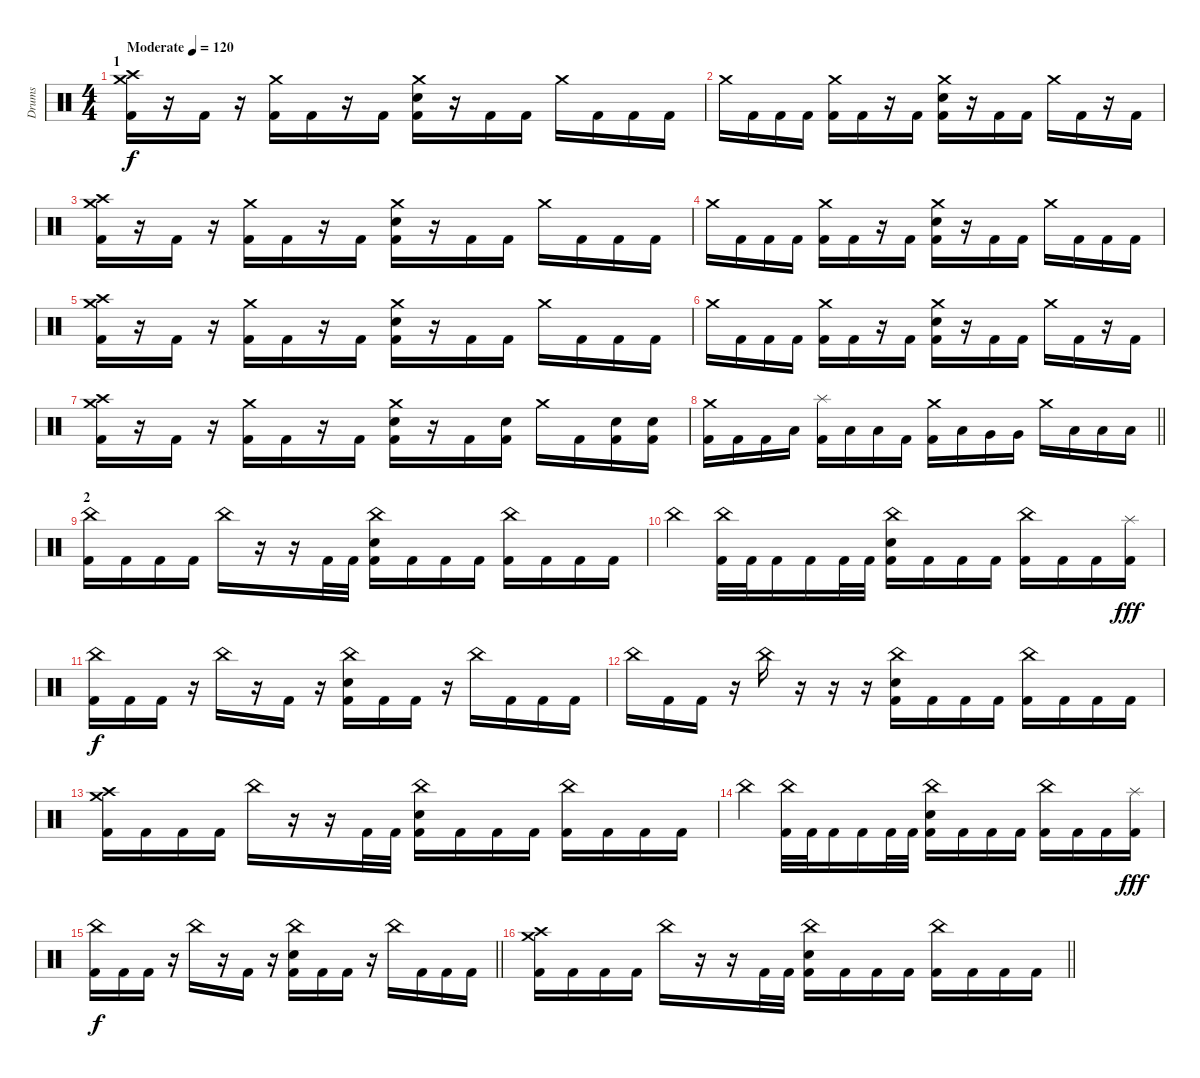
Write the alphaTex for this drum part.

\track ("Drums" "Drums") {instrument percussion}
\staff {score}
\articulation defaults
\ts (4 4)
\section ("" "1")
\tempo (120 "Moderate")
\clef neutral
\ks c
("Crash medium (hit)" "Crash high (hit)" "Kick (hit) 2").16{dy f} r.16 "Kick (hit) 2".16 r.16 ("Crash medium (hit)" "Kick (hit) 2").16 "Kick (hit) 2".16 r.16 "Kick (hit) 2".16 ("Crash medium (hit)" "Electric Snare (hit)" "Kick (hit) 2").16 r.16 "Kick (hit) 2".16 "Kick (hit) 2".16 "Crash medium (hit)".16 "Kick (hit) 2".16 "Kick (hit) 2".16 "Kick (hit) 2".16 |
"Crash medium (hit)".16 "Kick (hit) 2".16 "Kick (hit) 2".16 "Kick (hit) 2".16 ("Crash medium (hit)" "Kick (hit) 2").16 "Kick (hit) 2".16 r.16 "Kick (hit) 2".16 ("Crash medium (hit)" "Electric Snare (hit)" "Kick (hit) 2").16 r.16 "Kick (hit) 2".16 "Kick (hit) 2".16 "Crash medium (hit)".16 "Kick (hit) 2".16 r.16 "Kick (hit) 2".16 |
("Crash medium (hit)" "Crash high (hit)" "Kick (hit) 2").16 r.16 "Kick (hit) 2".16 r.16 ("Crash medium (hit)" "Kick (hit) 2").16 "Kick (hit) 2".16 r.16 "Kick (hit) 2".16 ("Crash medium (hit)" "Electric Snare (hit)" "Kick (hit) 2").16 r.16 "Kick (hit) 2".16 "Kick (hit) 2".16 "Crash medium (hit)".16 "Kick (hit) 2".16 "Kick (hit) 2".16 "Kick (hit) 2".16 |
"Crash medium (hit)".16 "Kick (hit) 2".16 "Kick (hit) 2".16 "Kick (hit) 2".16 ("Crash medium (hit)" "Kick (hit) 2").16 "Kick (hit) 2".16 r.16 "Kick (hit) 2".16 ("Crash medium (hit)" "Electric Snare (hit)" "Kick (hit) 2").16 r.16 "Kick (hit) 2".16 "Kick (hit) 2".16 "Crash medium (hit)".16 "Kick (hit) 2".16 "Kick (hit) 2".16 "Kick (hit) 2".16 |
("Crash medium (hit)" "Crash high (hit)" "Kick (hit) 2").16 r.16 "Kick (hit) 2".16 r.16 ("Crash medium (hit)" "Kick (hit) 2").16 "Kick (hit) 2".16 r.16 "Kick (hit) 2".16 ("Crash medium (hit)" "Electric Snare (hit)" "Kick (hit) 2").16 r.16 "Kick (hit) 2".16 "Kick (hit) 2".16 "Crash medium (hit)".16 "Kick (hit) 2".16 "Kick (hit) 2".16 "Kick (hit) 2".16 |
"Crash medium (hit)".16 "Kick (hit) 2".16 "Kick (hit) 2".16 "Kick (hit) 2".16 ("Crash medium (hit)" "Kick (hit) 2").16 "Kick (hit) 2".16 r.16 "Kick (hit) 2".16 ("Crash medium (hit)" "Electric Snare (hit)" "Kick (hit) 2").16 r.16 "Kick (hit) 2".16 "Kick (hit) 2".16 "Crash medium (hit)".16 "Kick (hit) 2".16 r.16 "Kick (hit) 2".16 |
("Crash medium (hit)" "Crash high (hit)" "Kick (hit) 2").16 r.16 "Kick (hit) 2".16 r.16 ("Crash medium (hit)" "Kick (hit) 2").16 "Kick (hit) 2".16 r.16 "Kick (hit) 2".16 ("Crash medium (hit)" "Electric Snare (hit)" "Kick (hit) 2").16 r.16 "Kick (hit) 2".16 ("Electric Snare (hit)" "Kick (hit) 2").16 "Crash medium (hit)".16 "Kick (hit) 2".16 ("Electric Snare (hit)" "Kick (hit) 2").16 ("Electric Snare (hit)" "Kick (hit) 2").16 |
\barLineRight lightlight
("Crash medium (hit)" "Kick (hit) 2").16 "Kick (hit) 2".16 "Kick (hit) 2".16 "Low Tom (hit)".16 ("Splash (hit)" "Kick (hit) 2").16 "Low Tom (hit)".16 "Low Tom (hit)".16 "Kick (hit) 2".16 ("Crash medium (hit)" "Kick (hit) 2").16 "Low Tom (hit)".16 "Very Low Tom (hit)".16 "Very Low Tom (hit)".16 "Crash medium (hit)".16 "Low Floor Tom (hit)".16 "Low Floor Tom (hit)".16 "Low Floor Tom (hit)".16 |
\section ("" "2")
("China (hit)" "Kick (hit) 2").16 "Kick (hit) 2".16 "Kick (hit) 2".16 "Kick (hit) 2".16 "China (hit)".16 r.16 r.16 "Kick (hit) 2".32 "Kick (hit) 2".32 ("China (hit)" "Electric Snare (hit)" "Kick (hit) 2").16 "Kick (hit) 2".16 "Kick (hit) 2".16 "Kick (hit) 2".16 ("China (hit)" "Kick (hit) 2").16 "Kick (hit) 2".16 "Kick (hit) 2".16 "Kick (hit) 2".16 |
"China (hit)".4 ("China (hit)" "Kick (hit) 2").32 "Kick (hit) 2".32 "Kick (hit) 2".16 "Kick (hit) 2".16 "Kick (hit) 2".32 "Kick (hit) 2".32 ("China (hit)" "Electric Snare (hit)" "Kick (hit) 2").16 "Kick (hit) 2".16 "Kick (hit) 2".16 "Kick (hit) 2".16 ("China (hit)" "Kick (hit) 2").16 "Kick (hit) 2".16 "Kick (hit) 2".16 ("Splash (hit)" "Kick (hit) 2").16{dy fff} |
("China (hit)" "Kick (hit) 2").16{dy f} "Kick (hit) 2".16 "Kick (hit) 2".16 r.16 "China (hit)".16 r.16 "Kick (hit) 2".16 r.16 ("China (hit)" "Electric Snare (hit)" "Kick (hit) 2").16 "Kick (hit) 2".16 "Kick (hit) 2".16 r.16 "China (hit)".16 "Kick (hit) 2".16 "Kick (hit) 2".16 "Kick (hit) 2".16 |
"China (hit)".16 "Kick (hit) 2".16 "Kick (hit) 2".16 r.16 "China (hit)".16 r.16 r.16 r.16 ("China (hit)" "Electric Snare (hit)" "Kick (hit) 2").16 "Kick (hit) 2".16 "Kick (hit) 2".16 "Kick (hit) 2".16 ("China (hit)" "Kick (hit) 2").16 "Kick (hit) 2".16 "Kick (hit) 2".16 "Kick (hit) 2".16 |
("Crash medium (hit)" "Crash high (hit)" "Kick (hit) 2").16 "Kick (hit) 2".16 "Kick (hit) 2".16 "Kick (hit) 2".16 "China (hit)".16 r.16 r.16 "Kick (hit) 2".32 "Kick (hit) 2".32 ("China (hit)" "Electric Snare (hit)" "Kick (hit) 2").16 "Kick (hit) 2".16 "Kick (hit) 2".16 "Kick (hit) 2".16 ("China (hit)" "Kick (hit) 2").16 "Kick (hit) 2".16 "Kick (hit) 2".16 "Kick (hit) 2".16 |
"China (hit)".4 ("China (hit)" "Kick (hit) 2").32 "Kick (hit) 2".32 "Kick (hit) 2".16 "Kick (hit) 2".16 "Kick (hit) 2".32 "Kick (hit) 2".32 ("China (hit)" "Electric Snare (hit)" "Kick (hit) 2").16 "Kick (hit) 2".16 "Kick (hit) 2".16 "Kick (hit) 2".16 ("China (hit)" "Kick (hit) 2").16 "Kick (hit) 2".16 "Kick (hit) 2".16 ("Splash (hit)" "Kick (hit) 2").16{dy fff} |
\barLineRight lightlight
("China (hit)" "Kick (hit) 2").16{dy f} "Kick (hit) 2".16 "Kick (hit) 2".16 r.16 "China (hit)".16 r.16 "Kick (hit) 2".16 r.16 ("China (hit)" "Electric Snare (hit)" "Kick (hit) 2").16 "Kick (hit) 2".16 "Kick (hit) 2".16 r.16 "China (hit)".16 "Kick (hit) 2".16 "Kick (hit) 2".16 "Kick (hit) 2".16 |
\barLineRight lightlight
("Crash medium (hit)" "Crash high (hit)" "Kick (hit) 2").16 "Kick (hit) 2".16 "Kick (hit) 2".16 "Kick (hit) 2".16 "China (hit)".16 r.16 r.16 "Kick (hit) 2".32 "Kick (hit) 2".32 ("China (hit)" "Electric Snare (hit)" "Kick (hit) 2").16 "Kick (hit) 2".16 "Kick (hit) 2".16 "Kick (hit) 2".16 ("China (hit)" "Kick (hit) 2").16 "Kick (hit) 2".16 "Kick (hit) 2".16 "Kick (hit) 2".16
